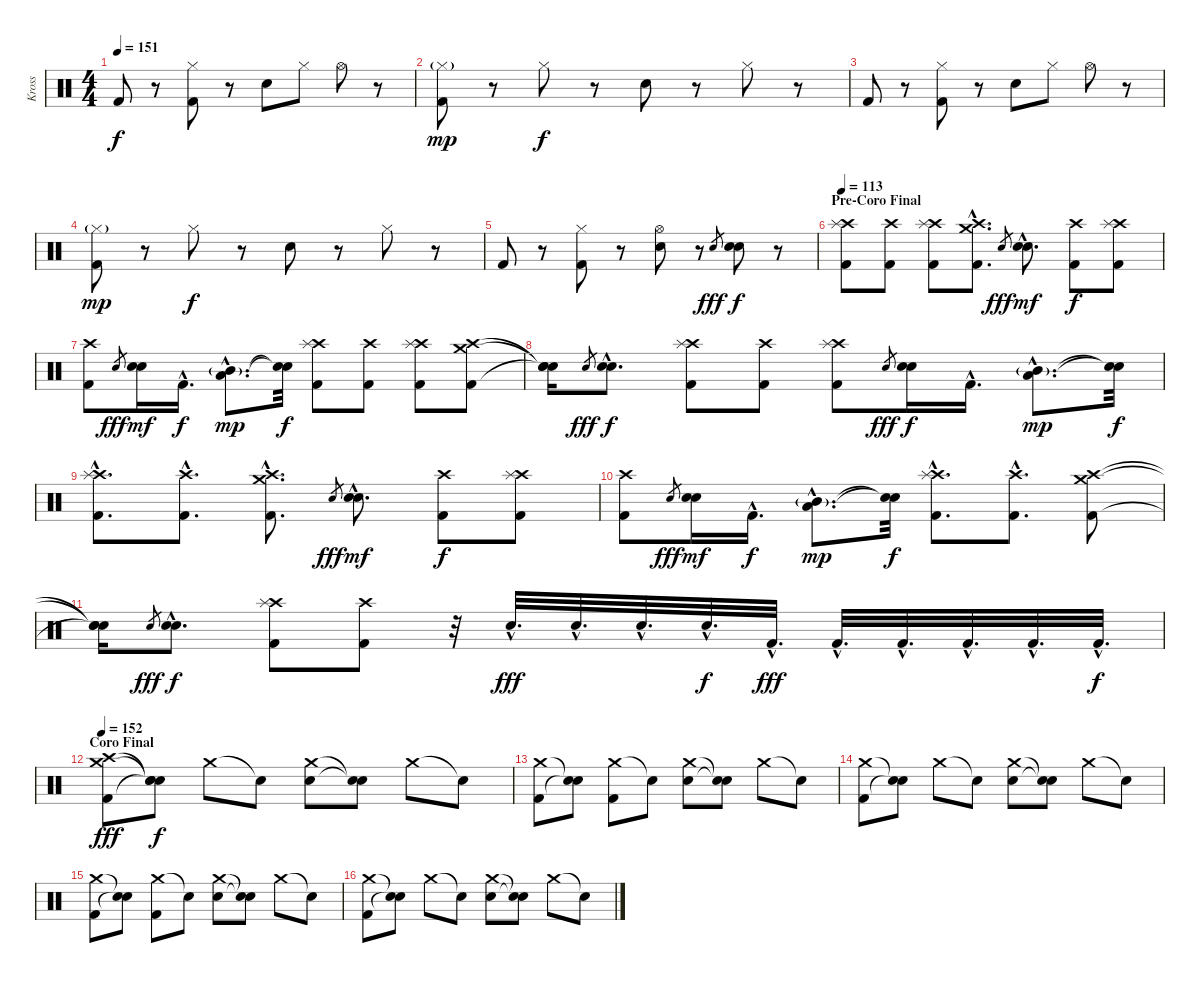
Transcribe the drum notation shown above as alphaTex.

\track ("Kross" "Kross") {instrument percussion}
\staff {score}
\articulation defaults
\ts (4 4)
\tempo 151
\clef neutral
\ks c "Kick (hit) 2".8{dy f}
r.8 ("Hi-Hat (closed)" "Kick (hit) 2").8 r.8 "Electric Snare (hit)".8 "Hi-Hat (closed)".8 "Hi-Hat (open)".8 r.8 |
("Hi-Hat (closed)"{g} "Kick (hit) 2").8{dy mp} r.8 "Hi-Hat (closed)".8{dy f} r.8 "Electric Snare (hit)".8 r.8 "Hi-Hat (closed)".8 r.8 |
"Kick (hit) 2".8 r.8 ("Hi-Hat (closed)" "Kick (hit) 2").8 r.8 "Electric Snare (hit)".8 "Hi-Hat (closed)".8 "Hi-Hat (open)".8 r.8 |
("Hi-Hat (closed)"{g} "Kick (hit) 2").8{dy mp} r.8 "Hi-Hat (closed)".8{dy f} r.8 "Electric Snare (hit)".8 r.8 "Hi-Hat (closed)".8 r.8 |
"Kick (hit) 2".8 r.8 ("Hi-Hat (closed)" "Kick (hit) 2").8 r.8 ("Hi-Hat (open)" "Electric Snare (hit)").8 r.8 "Electric Snare (hit)".8{gr dy fff} ("Electric Snare (hit)" "Electric Snare (hit)").8{dy f} r.8 |
\section ("" "Pre-Coro Final")
\tempo 113
("Crash high (hit)" "Splash (hit)" "Kick (hit) 2").8 ("Crash high (hit)" "Kick (hit) 2").8 ("Crash high (hit)" "Splash (hit)" "Kick (hit) 2").8 ("Crash high (hit)"{hac} "Crash medium (hit)"{hac} "Kick (hit) 2"{hac}).8{d} "Electric Snare (hit)".8{gr dy fff} ("Electric Snare (hit)"{hac} "Electric Snare (hit)"{hac}).8{d dy mf} ("Crash high (hit)" "Kick (hit) 2").8{dy f} ("Crash high (hit)" "Splash (hit)" "Kick (hit) 2").8 |
("Crash high (hit)" "Kick (hit) 2").8 "Electric Snare (hit)".8{gr dy fff} ("Electric Snare (hit)" "Electric Snare (hit)").16{dy mf} "Kick (hit) 2"{hac}.16{d dy f} ("Low Tom (hit)"{hac} "Mid Tom (hit)"{g hac}).8{d dy mp} ("Snare (hit)"{t} "Snare (hit)"{t}).32{dy f} ("Crash high (hit)" "Splash (hit)" "Kick (hit) 2").8 ("Crash high (hit)" "Kick (hit) 2").8 ("Crash high (hit)" "Splash (hit)" "Kick (hit) 2").8 ("Crash high (hit)" "Crash medium (hit)" "Kick (hit) 2").8 |
("Snare (hit)"{t} "Snare (hit)"{t} "Snare (hit)"{t}).16 "Electric Snare (hit)".8{gr dy fff} ("Electric Snare (hit)"{hac} "Electric Snare (hit)"{hac}).8{d dy f} ("Crash high (hit)" "Splash (hit)" "Kick (hit) 2").8 ("Crash high (hit)" "Kick (hit) 2").8 ("Crash high (hit)" "Splash (hit)" "Kick (hit) 2").8 "Electric Snare (hit)".8{gr dy fff} ("Electric Snare (hit)" "Electric Snare (hit)").16{dy f} "Kick (hit) 2"{hac}.16{d} ("Low Tom (hit)"{hac} "Mid Tom (hit)"{g hac}).8{d dy mp} ("Electric Snare (hit)"{t} "Snare (hit)"{t}).32{dy f} |
("Crash high (hit)"{hac} "Splash (hit)"{hac} "Kick (hit) 2"{hac}).8{d} ("Crash high (hit)"{hac} "Kick (hit) 2"{hac}).8{d} ("Crash high (hit)"{hac} "Crash medium (hit)"{hac} "Kick (hit) 2"{hac}).8{d} "Electric Snare (hit)".8{gr dy fff} ("Electric Snare (hit)"{hac} "Electric Snare (hit)"{hac}).8{d dy mf} ("Crash high (hit)" "Kick (hit) 2").8{dy f} ("Crash high (hit)" "Splash (hit)" "Kick (hit) 2").8 |
("Crash high (hit)" "Kick (hit) 2").8 "Electric Snare (hit)".8{gr dy fff} ("Electric Snare (hit)" "Electric Snare (hit)").16{dy mf} "Kick (hit) 2"{hac}.16{d dy f} ("Low Tom (hit)"{hac} "Mid Tom (hit)"{g hac}).8{d dy mp} ("Snare (hit)"{t} "Snare (hit)"{t}).32{dy f} ("Crash high (hit)"{hac} "Splash (hit)"{hac} "Kick (hit) 2"{hac}).8{d} ("Crash high (hit)"{hac} "Kick (hit) 2"{hac}).8{d} ("Crash high (hit)" "Crash medium (hit)" "Kick (hit) 2").8 |
("Snare (hit)"{t} "Snare (hit)"{t} "Snare (hit)"{t}).16 "Electric Snare (hit)".8{gr dy fff} ("Electric Snare (hit)"{hac} "Electric Snare (hit)"{hac}).8{d dy f} ("Crash high (hit)" "Splash (hit)" "Kick (hit) 2").8 ("Crash high (hit)" "Kick (hit) 2").8 r.32 "Electric Snare (hit)"{hac}.32{d dy fff} "Electric Snare (hit)"{hac}.32{d} "Electric Snare (hit)"{hac}.32{d} "Electric Snare (hit)"{hac}.32{d dy f} "Kick (hit) 2"{hac}.32{d dy fff} "Kick (hit) 2"{hac}.32{d} "Kick (hit) 2"{hac}.32{d} "Kick (hit) 2"{hac}.32{d} "Kick (hit) 2"{hac}.32{d} "Kick (hit) 2"{hac}.32{d dy f} |
\section ("" "Coro Final")
\tempo 152
("Crash medium (hit)" "Crash high (hit)" "Kick (hit) 2").8{dy fff} ("Snare (hit)"{t} "Snare (hit)"{t} "Snare (hit)"{t}).8{dy f} "Crash medium (hit)".8 "Snare (hit)"{t}.8 ("Crash medium (hit)" "Electric Snare (hit)").8 ("Snare (hit)"{t} "Snare (hit)"{t}).8 "Crash medium (hit)".8 "Snare (hit)"{t}.8 |
("Crash medium (hit)" "Kick (hit) 2").8 ("Snare (hit)"{t} "Snare (hit)"{t}).8 ("Crash medium (hit)" "Kick (hit) 2").8 "Snare (hit)"{t}.8 ("Crash medium (hit)" "Electric Snare (hit)").8 ("Snare (hit)"{t} "Snare (hit)"{t}).8 "Crash medium (hit)".8 "Snare (hit)"{t}.8 |
("Crash medium (hit)" "Kick (hit) 2").8 ("Snare (hit)"{t} "Snare (hit)"{t}).8 "Crash medium (hit)".8 "Snare (hit)"{t}.8 ("Crash medium (hit)" "Electric Snare (hit)").8 ("Snare (hit)"{t} "Snare (hit)"{t}).8 "Crash medium (hit)".8 "Snare (hit)"{t}.8 |
("Crash medium (hit)" "Kick (hit) 2").8 ("Snare (hit)"{t} "Snare (hit)"{t}).8 ("Crash medium (hit)" "Kick (hit) 2").8 "Snare (hit)"{t}.8 ("Crash medium (hit)" "Electric Snare (hit)").8 ("Snare (hit)"{t} "Snare (hit)"{t}).8 "Crash medium (hit)".8 "Snare (hit)"{t}.8 |
("Crash medium (hit)" "Kick (hit) 2").8 ("Snare (hit)"{t} "Snare (hit)"{t}).8 "Crash medium (hit)".8 "Snare (hit)"{t}.8 ("Crash medium (hit)" "Electric Snare (hit)").8 ("Snare (hit)"{t} "Snare (hit)"{t}).8 "Crash medium (hit)".8 "Snare (hit)"{t}.8
